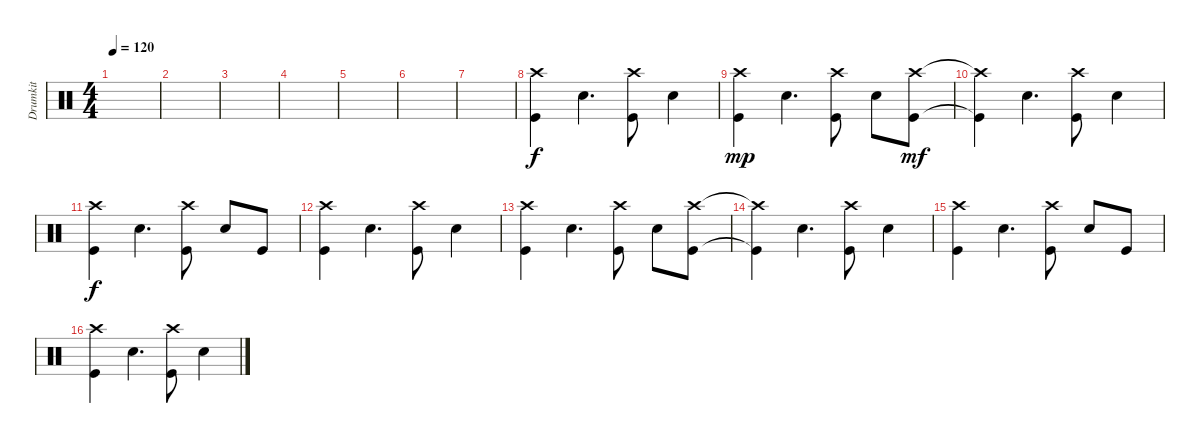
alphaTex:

\track ("Drumkit" "Drumkit") {instrument percussion}
\staff {score}
\articulation defaults
\ts (4 4)
\tempo 120
\clef neutral
\ks c
|
|
|
|
|
|
|
("Kick (hit)" "Crash high (hit)").4 "Snare (hit) 2".4{d} ("Kick (hit)" "Crash high (hit)").8 "Snare (hit) 2".4 |
("Kick (hit)" "Crash high (hit)").4{dy mp} "Snare (hit) 2".4{d} ("Kick (hit)" "Crash high (hit)").8 "Snare (hit) 2".8 ("Kick (hit)" "Crash high (hit)").8{dy mf} |
("Kick (hit)"{t} "Crash high (hit)"{t}).4 "Snare (hit) 2".4{d} ("Kick (hit)" "Crash high (hit)").8 "Snare (hit) 2".4 |
("Kick (hit)" "Crash high (hit)").4{dy f} "Snare (hit) 2".4{d} ("Kick (hit)" "Crash high (hit)").8 "Snare (hit) 2".8 "Kick (hit)".8 |
("Kick (hit)" "Crash high (hit)").4 "Snare (hit) 2".4{d} ("Kick (hit)" "Crash high (hit)").8 "Snare (hit) 2".4 |
("Kick (hit)" "Crash high (hit)").4 "Snare (hit) 2".4{d} ("Kick (hit)" "Crash high (hit)").8 "Snare (hit) 2".8 ("Kick (hit)" "Crash high (hit)").8 |
("Kick (hit)"{t} "Crash high (hit)"{t}).4 "Snare (hit) 2".4{d} ("Kick (hit)" "Crash high (hit)").8 "Snare (hit) 2".4 |
("Kick (hit)" "Crash high (hit)").4 "Snare (hit) 2".4{d} ("Kick (hit)" "Crash high (hit)").8 "Snare (hit) 2".8 "Kick (hit)".8 |
("Kick (hit)" "Crash high (hit)").4 "Snare (hit) 2".4{d} ("Kick (hit)" "Crash high (hit)").8 "Snare (hit) 2".4
